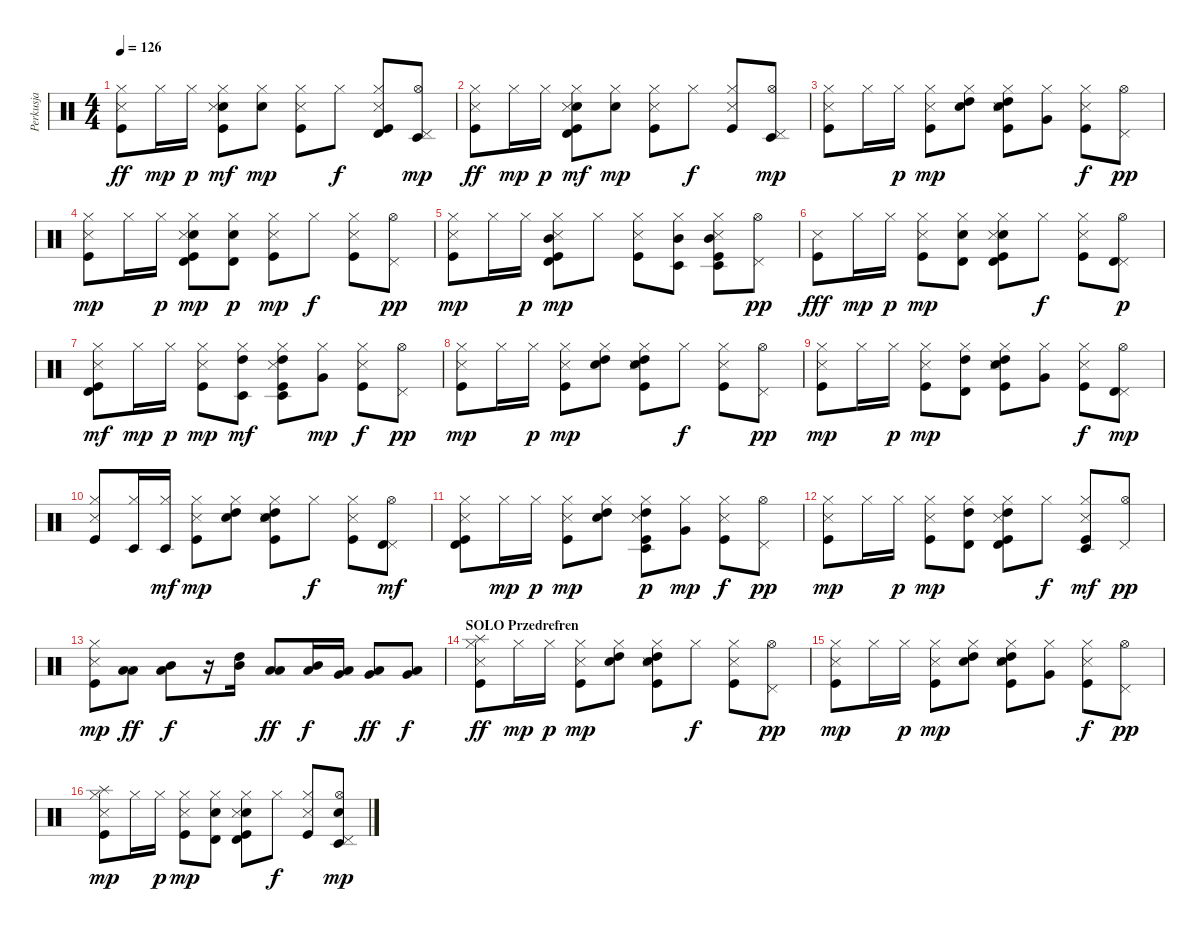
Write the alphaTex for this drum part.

\track ("Perkusja" "Perkusja") {instrument percussion}
\staff {score}
\articulation defaults
\ts (4 4)
\tempo 126
\clef neutral
\ks c
("Hi-Hat (closed)" "Kick (hit)" "Snare (side stick) 3").8{dy ff} "Hi-Hat (closed)".16{dy mp} "Hi-Hat (closed)".16{dy p} ("Hi-Hat (closed)" "Kick (hit)" "Electric Snare (hit)" "Snare (side stick) 3").8{dy mf} ("Hi-Hat (closed)" "Electric Snare (hit)").8{dy mp} ("Hi-Hat (closed)" "Kick (hit)" "Snare (side stick) 3").8 "Hi-Hat (closed)".8{dy f} ("Hi-Hat (closed)" "Kick (hit)" "Timbale high (hit)" "Snare (side stick) 3").8 ("Hi-Hat (open)" "Pedal Hi-Hat (hit)" "Timbale low (hit)").8{dy mp} |
("Hi-Hat (closed)" "Kick (hit)" "Snare (side stick) 3").8{dy ff} "Hi-Hat (closed)".16{dy mp} "Hi-Hat (closed)".16{dy p} ("Hi-Hat (closed)" "Kick (hit)" "Timbale high (hit)" "Electric Snare (hit)" "Snare (side stick) 3").8{dy mf} ("Hi-Hat (closed)" "Electric Snare (hit)").8{dy mp} ("Hi-Hat (closed)" "Kick (hit)" "Snare (side stick) 3").8 "Hi-Hat (closed)".8{dy f} ("Hi-Hat (closed)" "Kick (hit)" "Snare (side stick) 3").8 ("Hi-Hat (open)" "Pedal Hi-Hat (hit)" "Timbale low (hit)").8{dy mp} |
("Hi-Hat (closed)" "Kick (hit)" "Snare (side stick) 3").8 "Hi-Hat (closed)".16 "Hi-Hat (closed)".16{dy p} ("Hi-Hat (closed)" "Kick (hit)" "Snare (side stick) 3").8{dy mp} ("Hi-Hat (closed)" "High Tom (hit)" "Electric Snare (hit)").8 ("Hi-Hat (closed)" "Kick (hit)" "High Tom (hit)" "Electric Snare (hit)" "Snare (side stick) 3").8 ("Hi-Hat (closed)" "Very Low Tom (hit)").8 ("Hi-Hat (closed)" "Kick (hit)" "Snare (side stick) 3").8{dy f} ("Hi-Hat (open)" "Pedal Hi-Hat (hit)").8{dy pp} |
("Hi-Hat (closed)" "Kick (hit)" "Snare (side stick) 3").8{dy mp} "Hi-Hat (closed)".16 "Hi-Hat (closed)".16{dy p} ("Hi-Hat (closed)" "Kick (hit)" "Timbale high (hit)" "Electric Snare (hit)" "Snare (side stick) 3").8{dy mp} ("Hi-Hat (closed)" "Timbale high (hit)" "Electric Snare (hit)").8{dy p} ("Hi-Hat (closed)" "Kick (hit)" "Snare (side stick) 3").8{dy mp} "Hi-Hat (closed)".8{dy f} ("Hi-Hat (closed)" "Kick (hit)" "Snare (side stick) 3").8 ("Hi-Hat (open)" "Pedal Hi-Hat (hit)").8{dy pp} |
("Hi-Hat (closed)" "Kick (hit)" "Snare (side stick) 3").8{dy mp} "Hi-Hat (closed)".16 "Hi-Hat (closed)".16{dy p} ("Hi-Hat (closed)" "Kick (hit)" "Timbale high (hit)" "Mid Tom (hit)" "Snare (side stick) 3").8{dy mp} "Hi-Hat (closed)".8 ("Hi-Hat (closed)" "Kick (hit)" "Snare (side stick) 3").8 ("Hi-Hat (closed)" "Timbale low (hit)" "Mid Tom (hit)").8 ("Hi-Hat (closed)" "Kick (hit)" "Timbale low (hit)" "Mid Tom (hit)" "Snare (side stick) 3").8 ("Hi-Hat (open)" "Pedal Hi-Hat (hit)").8{dy pp} |
("Kick (hit)" "Snare (side stick) 3").8{dy fff} "Hi-Hat (closed)".16{dy mp} "Hi-Hat (closed)".16{dy p} ("Hi-Hat (closed)" "Kick (hit)" "Snare (side stick) 3").8{dy mp} ("Hi-Hat (closed)" "Timbale high (hit)" "Electric Snare (hit)").8 ("Hi-Hat (closed)" "Kick (hit)" "Timbale high (hit)" "Electric Snare (hit)" "Snare (side stick) 3").8 "Hi-Hat (closed)".8{dy f} ("Hi-Hat (closed)" "Kick (hit)" "Snare (side stick) 3").8 ("Hi-Hat (open)" "Pedal Hi-Hat (hit)" "Timbale high (hit)").8{dy p} |
("Hi-Hat (closed)" "Kick (hit)" "Timbale high (hit)" "Snare (side stick) 3").8{dy mf} "Hi-Hat (closed)".16{dy mp} "Hi-Hat (closed)".16{dy p} ("Hi-Hat (closed)" "Kick (hit)" "Snare (side stick) 3").8{dy mp} ("Hi-Hat (closed)" "High Tom (hit)" "Timbale low (hit)").8{dy mf} ("Hi-Hat (closed)" "Kick (hit)" "High Tom (hit)" "Timbale low (hit)" "Snare (side stick) 3").8 ("Hi-Hat (closed)" "Very Low Tom (hit)").8{dy mp} ("Hi-Hat (closed)" "Kick (hit)" "Snare (side stick) 3").8{dy f} ("Hi-Hat (open)" "Pedal Hi-Hat (hit)").8{dy pp} |
("Hi-Hat (closed)" "Kick (hit)" "Snare (side stick) 3").8{dy mp} "Hi-Hat (closed)".16 "Hi-Hat (closed)".16{dy p} ("Hi-Hat (closed)" "Kick (hit)" "Snare (side stick) 3").8{dy mp} ("Hi-Hat (closed)" "High Tom (hit)" "Electric Snare (hit)").8 ("Hi-Hat (closed)" "Kick (hit)" "High Tom (hit)" "Electric Snare (hit)" "Snare (side stick) 3").8 "Hi-Hat (closed)".8{dy f} ("Hi-Hat (closed)" "Kick (hit)" "Snare (side stick) 3").8 ("Hi-Hat (open)" "Pedal Hi-Hat (hit)").8{dy pp} |
("Hi-Hat (closed)" "Kick (hit)" "Snare (side stick) 3").8{dy mp} "Hi-Hat (closed)".16 "Hi-Hat (closed)".16{dy p} ("Hi-Hat (closed)" "Kick (hit)" "Snare (side stick) 3").8{dy mp} ("Hi-Hat (closed)" "High Tom (hit)" "Timbale high (hit)").8 ("Hi-Hat (closed)" "Kick (hit)" "High Tom (hit)" "Electric Snare (hit)" "Snare (side stick) 3").8 ("Hi-Hat (closed)" "Very Low Tom (hit)").8 ("Hi-Hat (closed)" "Kick (hit)" "Snare (side stick) 3").8{dy f} ("Hi-Hat (open)" "Pedal Hi-Hat (hit)" "Timbale high (hit)").8{dy mp} |
("Hi-Hat (closed)" "Kick (hit)" "Snare (side stick) 3").8 ("Hi-Hat (closed)" "Timbale low (hit)").16 ("Hi-Hat (closed)" "Timbale low (hit)").16{dy mf} ("Hi-Hat (closed)" "Kick (hit)" "Snare (side stick) 3").8{dy mp} ("Hi-Hat (closed)" "High Tom (hit)" "Electric Snare (hit)").8 ("Hi-Hat (closed)" "Kick (hit)" "High Tom (hit)" "Electric Snare (hit)" "Snare (side stick) 3").8 "Hi-Hat (closed)".8{dy f} ("Hi-Hat (closed)" "Kick (hit)" "Snare (side stick) 3").8 ("Hi-Hat (open)" "Pedal Hi-Hat (hit)" "Timbale high (hit)").8{dy mf} |
("Hi-Hat (closed)" "Kick (hit)" "Timbale high (hit)" "Snare (side stick) 3").8 "Hi-Hat (closed)".16{dy mp} "Hi-Hat (closed)".16{dy p} ("Hi-Hat (closed)" "Kick (hit)" "Snare (side stick) 3").8{dy mp} ("Hi-Hat (closed)" "High Tom (hit)" "Electric Snare (hit)").8 ("Hi-Hat (closed)" "Kick (hit)" "High Tom (hit)" "Timbale low (hit)" "Snare (side stick) 3").8{dy p} ("Hi-Hat (closed)" "Very Low Tom (hit)").8{dy mp} ("Hi-Hat (closed)" "Kick (hit)" "Snare (side stick) 3").8{dy f} ("Hi-Hat (open)" "Pedal Hi-Hat (hit)").8{dy pp} |
("Hi-Hat (closed)" "Kick (hit)" "Snare (side stick) 3").8{dy mp} "Hi-Hat (closed)".16 "Hi-Hat (closed)".16{dy p} ("Hi-Hat (closed)" "Kick (hit)" "Snare (side stick) 3").8{dy mp} ("Hi-Hat (closed)" "High Tom (hit)" "Timbale high (hit)").8 ("Hi-Hat (closed)" "Kick (hit)" "High Tom (hit)" "Timbale high (hit)" "Snare (side stick) 3").8 "Hi-Hat (closed)".8{dy f} ("Hi-Hat (closed)" "Kick (hit)" "Timbale low (hit)" "Snare (side stick) 3").8{dy mf} ("Hi-Hat (open)" "Pedal Hi-Hat (hit)").8{dy pp} |
("Hi-Hat (closed)" "Kick (hit)" "Snare (side stick) 3").8{dy mp} ("Low Tom (hit)" "Low Tom (hit)").8{dy ff} ("Mid Tom (hit)" "Low Tom (hit)").8{dy f} r.16 ("High Tom (hit)" "Mid Tom (hit)").16 ("Low Tom (hit)" "Low Tom (hit)").8{dy ff} ("Low Tom (hit)" "Mid Tom (hit)").16{dy f} ("Very Low Tom (hit)" "Low Tom (hit)").16 ("Very Low Tom (hit)" "Low Tom (hit)").8{dy ff} ("Low Floor Tom (hit)" "Very Low Tom (hit)").8{dy f} |
\section ("" "SOLO Przedrefren")
("Hi-Hat (closed)" "Kick (hit)" "Splash (hit)" "Snare (side stick) 3").8{dy ff} "Hi-Hat (closed)".16{dy mp} "Hi-Hat (closed)".16{dy p} ("Hi-Hat (closed)" "Kick (hit)" "Snare (side stick) 3").8{dy mp} ("Hi-Hat (closed)" "High Tom (hit)" "Electric Snare (hit)").8 ("Hi-Hat (closed)" "Kick (hit)" "High Tom (hit)" "Electric Snare (hit)" "Snare (side stick) 3").8 "Hi-Hat (closed)".8{dy f} ("Hi-Hat (closed)" "Kick (hit)" "Snare (side stick) 3").8 ("Hi-Hat (open)" "Pedal Hi-Hat (hit)").8{dy pp} |
("Hi-Hat (closed)" "Kick (hit)" "Snare (side stick) 3").8{dy mp} "Hi-Hat (closed)".16 "Hi-Hat (closed)".16{dy p} ("Hi-Hat (closed)" "Kick (hit)" "Snare (side stick) 3").8{dy mp} ("Hi-Hat (closed)" "High Tom (hit)" "Electric Snare (hit)").8 ("Hi-Hat (closed)" "Kick (hit)" "High Tom (hit)" "Electric Snare (hit)" "Snare (side stick) 3").8 ("Hi-Hat (closed)" "Very Low Tom (hit)").8 ("Hi-Hat (closed)" "Kick (hit)" "Snare (side stick) 3").8{dy f} ("Hi-Hat (open)" "Pedal Hi-Hat (hit)").8{dy pp} |
("Hi-Hat (closed)" "Kick (hit)" "Splash (hit)" "Snare (side stick) 3").8{dy mp} "Hi-Hat (closed)".16 "Hi-Hat (closed)".16{dy p} ("Hi-Hat (closed)" "Kick (hit)" "Snare (side stick) 3").8{dy mp} ("Hi-Hat (closed)" "Timbale high (hit)" "Electric Snare (hit)").8 ("Hi-Hat (closed)" "Kick (hit)" "Timbale high (hit)" "Electric Snare (hit)" "Snare (side stick) 3").8 "Hi-Hat (closed)".8{dy f} ("Hi-Hat (closed)" "Kick (hit)" "Snare (side stick) 3").8 ("Hi-Hat (open)" "Pedal Hi-Hat (hit)" "Timbale low (hit)" "Electric Snare (hit)").8{dy mp}
